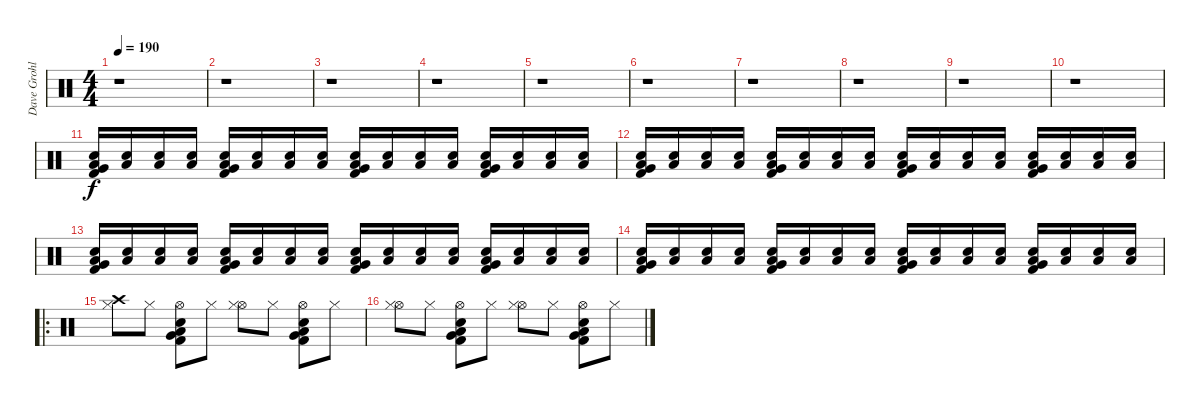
\track ("Dave Grohl (Drums)" "Dave Grohl") {instrument percussion}
\staff {score}
\articulation defaults
\ts (4 4)
\tempo 190
\clef neutral
\ks c
r.1{dy f} |
r.1 |
r.1 |
r.1 |
r.1 |
r.1 |
r.1 |
r.1 |
r.1 |
r.1 |
("Low Tom (hit)" "Snare (hit) 2" "Kick (hit) 2" "Very Low Tom (hit)").16 ("Low Tom (hit)" "Snare (hit) 2").16 ("Low Tom (hit)" "Snare (hit) 2").16 ("Low Tom (hit)" "Snare (hit) 2").16 ("Low Tom (hit)" "Snare (hit) 2" "Kick (hit) 2" "Very Low Tom (hit)").16 ("Low Tom (hit)" "Snare (hit) 2").16 ("Low Tom (hit)" "Snare (hit) 2").16 ("Low Tom (hit)" "Snare (hit) 2").16 ("Low Tom (hit)" "Snare (hit) 2" "Kick (hit) 2" "Very Low Tom (hit)").16 ("Low Tom (hit)" "Snare (hit) 2").16 ("Low Tom (hit)" "Snare (hit) 2").16 ("Low Tom (hit)" "Snare (hit) 2").16 ("Low Tom (hit)" "Snare (hit) 2" "Kick (hit) 2" "Very Low Tom (hit)").16 ("Low Tom (hit)" "Snare (hit) 2").16 ("Low Tom (hit)" "Snare (hit) 2").16 ("Low Tom (hit)" "Snare (hit) 2").16 |
("Low Tom (hit)" "Snare (hit) 2" "Kick (hit) 2" "Very Low Tom (hit)").16 ("Low Tom (hit)" "Snare (hit) 2").16 ("Low Tom (hit)" "Snare (hit) 2").16 ("Low Tom (hit)" "Snare (hit) 2").16 ("Low Tom (hit)" "Snare (hit) 2" "Kick (hit) 2" "Very Low Tom (hit)").16 ("Low Tom (hit)" "Snare (hit) 2").16 ("Low Tom (hit)" "Snare (hit) 2").16 ("Low Tom (hit)" "Snare (hit) 2").16 ("Low Tom (hit)" "Snare (hit) 2" "Kick (hit) 2" "Very Low Tom (hit)").16 ("Low Tom (hit)" "Snare (hit) 2").16 ("Low Tom (hit)" "Snare (hit) 2").16 ("Low Tom (hit)" "Snare (hit) 2").16 ("Low Tom (hit)" "Snare (hit) 2" "Kick (hit) 2" "Very Low Tom (hit)").16 ("Low Tom (hit)" "Snare (hit) 2").16 ("Low Tom (hit)" "Snare (hit) 2").16 ("Low Tom (hit)" "Snare (hit) 2").16 |
("Low Tom (hit)" "Snare (hit) 2" "Kick (hit) 2" "Very Low Tom (hit)").16 ("Low Tom (hit)" "Snare (hit) 2").16 ("Low Tom (hit)" "Snare (hit) 2").16 ("Low Tom (hit)" "Snare (hit) 2").16 ("Low Tom (hit)" "Snare (hit) 2" "Kick (hit) 2" "Very Low Tom (hit)").16 ("Low Tom (hit)" "Snare (hit) 2").16 ("Low Tom (hit)" "Snare (hit) 2").16 ("Low Tom (hit)" "Snare (hit) 2").16 ("Low Tom (hit)" "Snare (hit) 2" "Kick (hit) 2" "Very Low Tom (hit)").16 ("Low Tom (hit)" "Snare (hit) 2").16 ("Low Tom (hit)" "Snare (hit) 2").16 ("Low Tom (hit)" "Snare (hit) 2").16 ("Low Tom (hit)" "Snare (hit) 2" "Kick (hit) 2" "Very Low Tom (hit)").16 ("Low Tom (hit)" "Snare (hit) 2").16 ("Low Tom (hit)" "Snare (hit) 2").16 ("Low Tom (hit)" "Snare (hit) 2").16 |
("Low Tom (hit)" "Snare (hit) 2" "Kick (hit) 2" "Very Low Tom (hit)").16 ("Low Tom (hit)" "Snare (hit) 2").16 ("Low Tom (hit)" "Snare (hit) 2").16 ("Low Tom (hit)" "Snare (hit) 2").16 ("Low Tom (hit)" "Snare (hit) 2" "Kick (hit) 2" "Very Low Tom (hit)").16 ("Low Tom (hit)" "Snare (hit) 2").16 ("Low Tom (hit)" "Snare (hit) 2").16 ("Low Tom (hit)" "Snare (hit) 2").16 ("Low Tom (hit)" "Snare (hit) 2" "Kick (hit) 2" "Very Low Tom (hit)").16 ("Low Tom (hit)" "Snare (hit) 2").16 ("Low Tom (hit)" "Snare (hit) 2").16 ("Low Tom (hit)" "Snare (hit) 2").16 ("Low Tom (hit)" "Snare (hit) 2" "Kick (hit) 2" "Very Low Tom (hit)").16 ("Low Tom (hit)" "Snare (hit) 2").16 ("Low Tom (hit)" "Snare (hit) 2").16 ("Low Tom (hit)" "Snare (hit) 2").16 |
\ro
("Crash high (hit)" "Hi-Hat (closed)").8 "Hi-Hat (closed)".8 ("Snare (hit) 2" "Low Tom (hit)" "Hi-Hat (open)" "Very Low Tom (hit)" "Kick (hit) 2").8 "Hi-Hat (closed)".8 ("Hi-Hat (open)" "Hi-Hat (closed)").8 "Hi-Hat (closed)".8 ("Snare (hit) 2" "Low Tom (hit)" "Hi-Hat (open)" "Very Low Tom (hit)" "Kick (hit) 2").8 "Hi-Hat (closed)".8 |
("Hi-Hat (open)" "Hi-Hat (closed)").8 "Hi-Hat (closed)".8 ("Snare (hit) 2" "Low Tom (hit)" "Hi-Hat (open)" "Very Low Tom (hit)" "Kick (hit) 2").8 "Hi-Hat (closed)".8 ("Hi-Hat (open)" "Hi-Hat (closed)").8 "Hi-Hat (closed)".8 ("Snare (hit) 2" "Low Tom (hit)" "Hi-Hat (open)" "Very Low Tom (hit)" "Kick (hit) 2").8 "Hi-Hat (closed)".8
